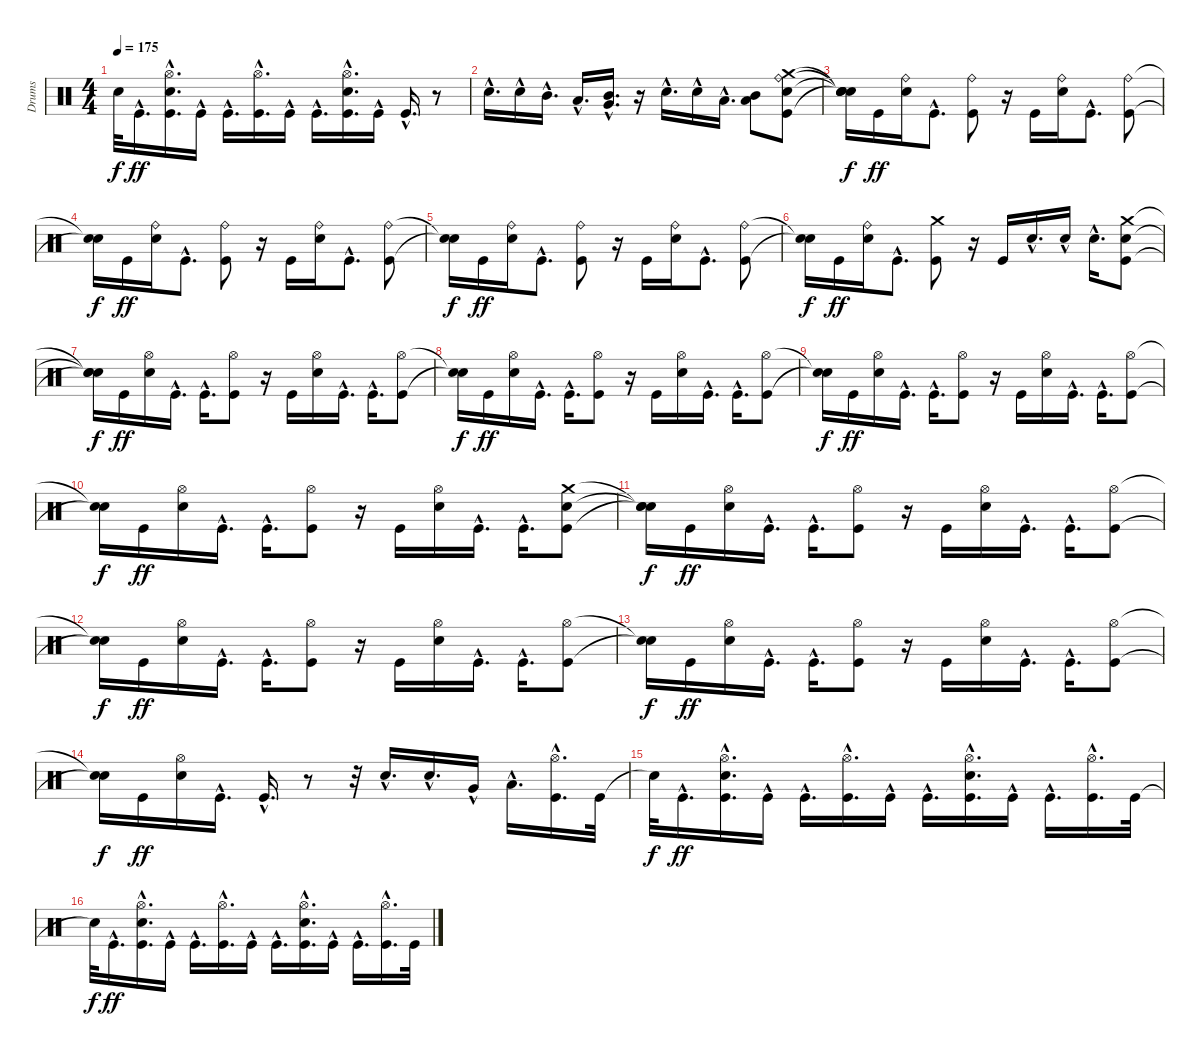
\track ("Drums" "Drums") {instrument percussion}
\staff {score}
\articulation defaults
\ts (4 4)
\tempo 175
\clef neutral
\ks c "Snare (hit)"{t}.32{dy f} "Kick (hit)"{hac}.16{d dy ff}
("Kick (hit)"{hac} "Electric Snare (hit)"{hac} "Hi-Hat (open)"{hac}).16{d} "Kick (hit)"{hac}.16 "Kick (hit)"{hac}.16{d} ("Kick (hit)"{hac} "Hi-Hat (open)"{hac}).16{d} "Kick (hit)"{hac}.16 "Kick (hit)"{hac}.16{d} ("Kick (hit)"{hac} "Electric Snare (hit)"{hac} "Hi-Hat (open)"{hac}).16{d} "Kick (hit)"{hac}.16 "Kick (hit)"{hac}.16{d} r.8 |
"Electric Snare (hit)"{hac}.16{d} "Electric Snare (hit)"{hac}.16 "Mid Tom (hit)"{hac}.16{d} "Low Tom (hit)"{hac}.16{d} ("Very Low Tom (hit)"{hac} "Mid Tom (hit)"{hac}).16{d} r.16 "Electric Snare (hit)"{hac}.16{d} "Electric Snare (hit)"{hac}.16 "Low Tom (hit)"{hac}.16{d} ("Low Floor Tom (hit)" "Mid Tom (hit)").8 ("Kick (hit)" "Electric Snare (hit)" "Ride (bell)" "Crash medium (hit)").8 |
("Snare (hit)"{t} "Snare (hit)"{t} "Snare (hit)"{t} "Snare (hit)"{t}).16{dy f} "Kick (hit)".16{dy ff} ("Electric Snare (hit)" "Ride (bell)").16 "Kick (hit)"{hac}.8{d} ("Kick (hit)" "Ride (bell)").8 r.16 "Kick (hit)".16 ("Electric Snare (hit)" "Ride (bell)").16 "Kick (hit)"{hac}.8{d} ("Kick (hit)" "Ride (bell)").8 |
("Snare (hit)"{t} "Snare (hit)"{t}).16{dy f} "Kick (hit)".16{dy ff} ("Electric Snare (hit)" "Ride (bell)").16 "Kick (hit)"{hac}.8{d} ("Kick (hit)" "Ride (bell)").8 r.16 "Kick (hit)".16 ("Electric Snare (hit)" "Ride (bell)").16 "Kick (hit)"{hac}.8{d} ("Kick (hit)" "Ride (bell)").8 |
("Snare (hit)"{t} "Snare (hit)"{t}).16{dy f} "Kick (hit)".16{dy ff} ("Electric Snare (hit)" "Ride (bell)").16 "Kick (hit)"{hac}.8{d} ("Kick (hit)" "Ride (bell)").8 r.16 "Kick (hit)".16 ("Electric Snare (hit)" "Ride (bell)").16 "Kick (hit)"{hac}.8{d} ("Kick (hit)" "Ride (bell)").8 |
("Snare (hit)"{t} "Snare (hit)"{t}).16{dy f} "Kick (hit)".16{dy ff} ("Electric Snare (hit)" "Ride (bell)").16 "Kick (hit)"{hac}.8{d} ("Kick (hit)" "Crash medium (hit)").8 r.16 "Kick (hit)".16 "Electric Snare (hit)"{hac}.16{d} "Electric Snare (hit)"{hac}.16 "Electric Snare (hit)"{hac}.16{d} ("Kick (hit)" "Electric Snare (hit)" "Crash medium (hit)").8 |
("Snare (hit)"{t} "Snare (hit)"{t} "Snare (hit)"{t}).16{dy f} "Kick (hit)".16{dy ff} ("Electric Snare (hit)" "Hi-Hat (open)").16 "Kick (hit)"{hac}.16{d} "Kick (hit)"{hac}.16{d} ("Kick (hit)" "Hi-Hat (open)").8 r.16 "Kick (hit)".16 ("Electric Snare (hit)" "Hi-Hat (open)").16 "Kick (hit)"{hac}.16{d} "Kick (hit)"{hac}.16{d} ("Kick (hit)" "Hi-Hat (open)").8 |
("Snare (hit)"{t} "Snare (hit)"{t}).16{dy f} "Kick (hit)".16{dy ff} ("Electric Snare (hit)" "Hi-Hat (open)").16 "Kick (hit)"{hac}.16{d} "Kick (hit)"{hac}.16{d} ("Kick (hit)" "Hi-Hat (open)").8 r.16 "Kick (hit)".16 ("Electric Snare (hit)" "Hi-Hat (open)").16 "Kick (hit)"{hac}.16{d} "Kick (hit)"{hac}.16{d} ("Kick (hit)" "Hi-Hat (open)").8 |
("Snare (hit)"{t} "Snare (hit)"{t}).16{dy f} "Kick (hit)".16{dy ff} ("Electric Snare (hit)" "Hi-Hat (open)").16 "Kick (hit)"{hac}.16{d} "Kick (hit)"{hac}.16{d} ("Kick (hit)" "Hi-Hat (open)").8 r.16 "Kick (hit)".16 ("Electric Snare (hit)" "Hi-Hat (open)").16 "Kick (hit)"{hac}.16{d} "Kick (hit)"{hac}.16{d} ("Kick (hit)" "Hi-Hat (open)").8 |
("Snare (hit)"{t} "Snare (hit)"{t}).16{dy f} "Kick (hit)".16{dy ff} ("Electric Snare (hit)" "Hi-Hat (open)").16 "Kick (hit)"{hac}.16{d} "Kick (hit)"{hac}.16{d} ("Kick (hit)" "Hi-Hat (open)").8 r.16 "Kick (hit)".16 ("Electric Snare (hit)" "Hi-Hat (open)").16 "Kick (hit)"{hac}.16{d} "Kick (hit)"{hac}.16{d} ("Kick (hit)" "Electric Snare (hit)" "Crash medium (hit)").8 |
("Snare (hit)"{t} "Snare (hit)"{t} "Snare (hit)"{t}).16{dy f} "Kick (hit)".16{dy ff} ("Electric Snare (hit)" "Hi-Hat (open)").16 "Kick (hit)"{hac}.16{d} "Kick (hit)"{hac}.16{d} ("Kick (hit)" "Hi-Hat (open)").8 r.16 "Kick (hit)".16 ("Electric Snare (hit)" "Hi-Hat (open)").16 "Kick (hit)"{hac}.16{d} "Kick (hit)"{hac}.16{d} ("Kick (hit)" "Hi-Hat (open)").8 |
("Snare (hit)"{t} "Snare (hit)"{t}).16{dy f} "Kick (hit)".16{dy ff} ("Electric Snare (hit)" "Hi-Hat (open)").16 "Kick (hit)"{hac}.16{d} "Kick (hit)"{hac}.16{d} ("Kick (hit)" "Hi-Hat (open)").8 r.16 "Kick (hit)".16 ("Electric Snare (hit)" "Hi-Hat (open)").16 "Kick (hit)"{hac}.16{d} "Kick (hit)"{hac}.16{d} ("Kick (hit)" "Hi-Hat (open)").8 |
("Snare (hit)"{t} "Snare (hit)"{t}).16{dy f} "Kick (hit)".16{dy ff} ("Electric Snare (hit)" "Hi-Hat (open)").16 "Kick (hit)"{hac}.16{d} "Kick (hit)"{hac}.16{d} ("Kick (hit)" "Hi-Hat (open)").8 r.16 "Kick (hit)".16 ("Electric Snare (hit)" "Hi-Hat (open)").16 "Kick (hit)"{hac}.16{d} "Kick (hit)"{hac}.16{d} ("Kick (hit)" "Hi-Hat (open)").8 |
("Snare (hit)"{t} "Snare (hit)"{t}).16{dy f} "Kick (hit)".16{dy ff} ("Electric Snare (hit)" "Hi-Hat (open)").16 "Kick (hit)"{hac}.16{d} "Kick (hit)"{hac}.16{d} r.8 r.32 "Electric Snare (hit)"{hac}.16{d} "Electric Snare (hit)"{hac}.16{d} "Very Low Tom (hit)"{hac}.16 "Low Floor Tom (hit)"{hac}.16{d} ("Kick (hit)"{hac} "Hi-Hat (open)"{hac}).16{d} "Kick (hit)".32 |
"Snare (hit)"{t}.32{dy f} "Kick (hit)"{hac}.16{d dy ff} ("Kick (hit)"{hac} "Electric Snare (hit)"{hac} "Hi-Hat (open)"{hac}).16{d} "Kick (hit)"{hac}.16 "Kick (hit)"{hac}.16{d} ("Kick (hit)"{hac} "Hi-Hat (open)"{hac}).16{d} "Kick (hit)"{hac}.16 "Kick (hit)"{hac}.16{d} ("Kick (hit)"{hac} "Electric Snare (hit)"{hac} "Hi-Hat (open)"{hac}).16{d} "Kick (hit)"{hac}.16 "Kick (hit)"{hac}.16{d} ("Kick (hit)"{hac} "Hi-Hat (open)"{hac}).16{d} "Kick (hit)".32 |
"Snare (hit)"{t}.32{dy f} "Kick (hit)"{hac}.16{d dy ff} ("Kick (hit)"{hac} "Electric Snare (hit)"{hac} "Hi-Hat (open)"{hac}).16{d} "Kick (hit)"{hac}.16 "Kick (hit)"{hac}.16{d} ("Kick (hit)"{hac} "Hi-Hat (open)"{hac}).16{d} "Kick (hit)"{hac}.16 "Kick (hit)"{hac}.16{d} ("Kick (hit)"{hac} "Electric Snare (hit)"{hac} "Hi-Hat (open)"{hac}).16{d} "Kick (hit)"{hac}.16 "Kick (hit)"{hac}.16{d} ("Kick (hit)"{hac} "Hi-Hat (open)"{hac}).16{d} "Kick (hit)".32
